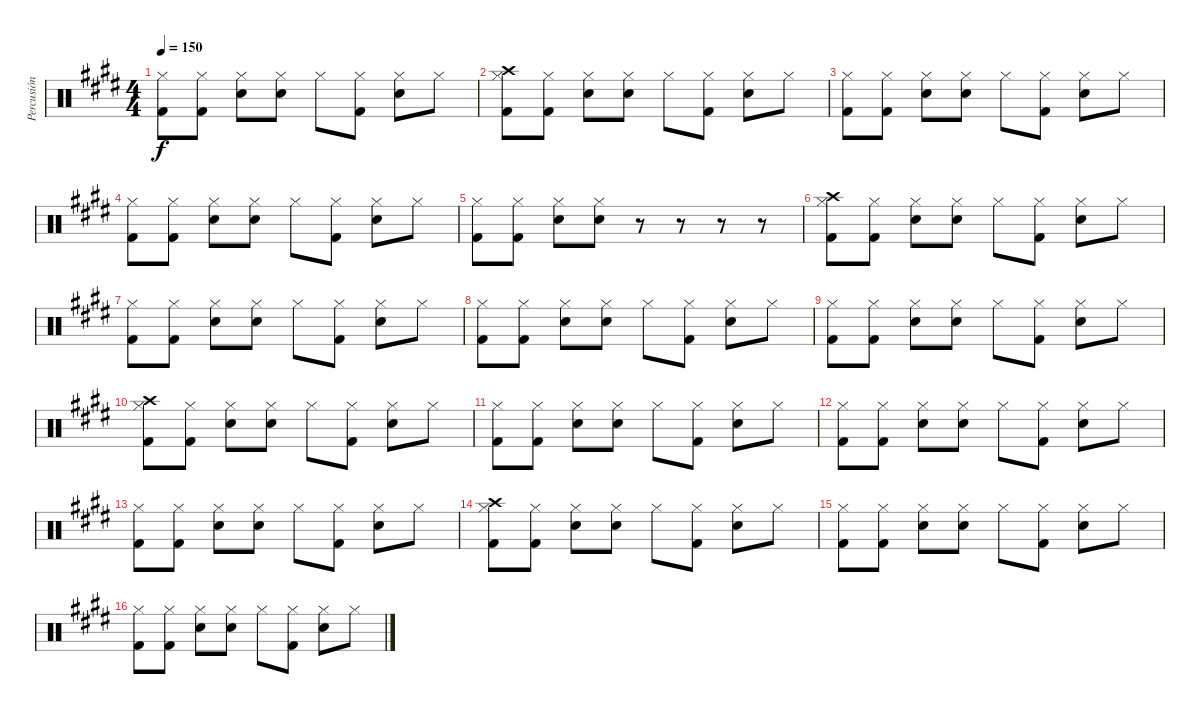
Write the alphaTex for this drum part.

\track ("Percusión" "Percusión") {instrument percussion}
\staff {score}
\articulation defaults
\ts (4 4)
\tempo 150
\clef neutral
\ks e
("Kick (hit) 2" "Hi-Hat (closed)").8{dy f} ("Kick (hit) 2" "Hi-Hat (closed)").8 ("Snare (hit) 2" "Hi-Hat (closed)").8 ("Snare (hit) 2" "Hi-Hat (closed)").8 "Hi-Hat (closed)".8 ("Kick (hit) 2" "Hi-Hat (closed)").8 ("Snare (hit) 2" "Hi-Hat (closed)").8 "Hi-Hat (closed)".8 |
("Kick (hit) 2" "Hi-Hat (closed)" "Crash high (hit)").8 ("Kick (hit) 2" "Hi-Hat (closed)").8 ("Snare (hit) 2" "Hi-Hat (closed)").8 ("Snare (hit) 2" "Hi-Hat (closed)").8 "Hi-Hat (closed)".8 ("Kick (hit) 2" "Hi-Hat (closed)").8 ("Snare (hit) 2" "Hi-Hat (closed)").8 "Hi-Hat (closed)".8 |
("Kick (hit) 2" "Hi-Hat (closed)").8 ("Kick (hit) 2" "Hi-Hat (closed)").8 ("Snare (hit) 2" "Hi-Hat (closed)").8 ("Snare (hit) 2" "Hi-Hat (closed)").8 "Hi-Hat (closed)".8 ("Kick (hit) 2" "Hi-Hat (closed)").8 ("Snare (hit) 2" "Hi-Hat (closed)").8 "Hi-Hat (closed)".8 |
("Kick (hit) 2" "Hi-Hat (closed)").8 ("Kick (hit) 2" "Hi-Hat (closed)").8 ("Snare (hit) 2" "Hi-Hat (closed)").8 ("Snare (hit) 2" "Hi-Hat (closed)").8 "Hi-Hat (closed)".8 ("Kick (hit) 2" "Hi-Hat (closed)").8 ("Snare (hit) 2" "Hi-Hat (closed)").8 "Hi-Hat (closed)".8 |
("Kick (hit) 2" "Hi-Hat (closed)").8 ("Kick (hit) 2" "Hi-Hat (closed)").8 ("Snare (hit) 2" "Hi-Hat (closed)").8 ("Snare (hit) 2" "Hi-Hat (closed)").8 r.8 r.8 r.8 r.8 |
("Kick (hit) 2" "Hi-Hat (closed)" "Crash high (hit)").8 ("Kick (hit) 2" "Hi-Hat (closed)").8 ("Snare (hit) 2" "Hi-Hat (closed)").8 ("Snare (hit) 2" "Hi-Hat (closed)").8 "Hi-Hat (closed)".8 ("Kick (hit) 2" "Hi-Hat (closed)").8 ("Snare (hit) 2" "Hi-Hat (closed)").8 "Hi-Hat (closed)".8 |
("Kick (hit) 2" "Hi-Hat (closed)").8 ("Kick (hit) 2" "Hi-Hat (closed)").8 ("Snare (hit) 2" "Hi-Hat (closed)").8 ("Snare (hit) 2" "Hi-Hat (closed)").8 "Hi-Hat (closed)".8 ("Kick (hit) 2" "Hi-Hat (closed)").8 ("Snare (hit) 2" "Hi-Hat (closed)").8 "Hi-Hat (closed)".8 |
("Kick (hit) 2" "Hi-Hat (closed)").8 ("Kick (hit) 2" "Hi-Hat (closed)").8 ("Snare (hit) 2" "Hi-Hat (closed)").8 ("Snare (hit) 2" "Hi-Hat (closed)").8 "Hi-Hat (closed)".8 ("Kick (hit) 2" "Hi-Hat (closed)").8 ("Snare (hit) 2" "Hi-Hat (closed)").8 "Hi-Hat (closed)".8 |
("Kick (hit) 2" "Hi-Hat (closed)").8 ("Kick (hit) 2" "Hi-Hat (closed)").8 ("Snare (hit) 2" "Hi-Hat (closed)").8 ("Snare (hit) 2" "Hi-Hat (closed)").8 "Hi-Hat (closed)".8 ("Kick (hit) 2" "Hi-Hat (closed)").8 ("Snare (hit) 2" "Hi-Hat (closed)").8 "Hi-Hat (closed)".8 |
("Kick (hit) 2" "Hi-Hat (closed)" "Crash high (hit)").8 ("Kick (hit) 2" "Hi-Hat (closed)").8 ("Snare (hit) 2" "Hi-Hat (closed)").8 ("Snare (hit) 2" "Hi-Hat (closed)").8 "Hi-Hat (closed)".8 ("Kick (hit) 2" "Hi-Hat (closed)").8 ("Snare (hit) 2" "Hi-Hat (closed)").8 "Hi-Hat (closed)".8 |
("Kick (hit) 2" "Hi-Hat (closed)").8 ("Kick (hit) 2" "Hi-Hat (closed)").8 ("Snare (hit) 2" "Hi-Hat (closed)").8 ("Snare (hit) 2" "Hi-Hat (closed)").8 "Hi-Hat (closed)".8 ("Kick (hit) 2" "Hi-Hat (closed)").8 ("Snare (hit) 2" "Hi-Hat (closed)").8 "Hi-Hat (closed)".8 |
("Kick (hit) 2" "Hi-Hat (closed)").8 ("Kick (hit) 2" "Hi-Hat (closed)").8 ("Snare (hit) 2" "Hi-Hat (closed)").8 ("Snare (hit) 2" "Hi-Hat (closed)").8 "Hi-Hat (closed)".8 ("Kick (hit) 2" "Hi-Hat (closed)").8 ("Snare (hit) 2" "Hi-Hat (closed)").8 "Hi-Hat (closed)".8 |
("Kick (hit) 2" "Hi-Hat (closed)").8 ("Kick (hit) 2" "Hi-Hat (closed)").8 ("Snare (hit) 2" "Hi-Hat (closed)").8 ("Snare (hit) 2" "Hi-Hat (closed)").8 "Hi-Hat (closed)".8 ("Kick (hit) 2" "Hi-Hat (closed)").8 ("Snare (hit) 2" "Hi-Hat (closed)").8 "Hi-Hat (closed)".8 |
("Kick (hit) 2" "Hi-Hat (closed)" "Crash high (hit)").8 ("Kick (hit) 2" "Hi-Hat (closed)").8 ("Snare (hit) 2" "Hi-Hat (closed)").8 ("Snare (hit) 2" "Hi-Hat (closed)").8 "Hi-Hat (closed)".8 ("Kick (hit) 2" "Hi-Hat (closed)").8 ("Snare (hit) 2" "Hi-Hat (closed)").8 "Hi-Hat (closed)".8 |
("Kick (hit) 2" "Hi-Hat (closed)").8 ("Kick (hit) 2" "Hi-Hat (closed)").8 ("Snare (hit) 2" "Hi-Hat (closed)").8 ("Snare (hit) 2" "Hi-Hat (closed)").8 "Hi-Hat (closed)".8 ("Kick (hit) 2" "Hi-Hat (closed)").8 ("Snare (hit) 2" "Hi-Hat (closed)").8 "Hi-Hat (closed)".8 |
("Kick (hit) 2" "Hi-Hat (closed)").8 ("Kick (hit) 2" "Hi-Hat (closed)").8 ("Snare (hit) 2" "Hi-Hat (closed)").8 ("Snare (hit) 2" "Hi-Hat (closed)").8 "Hi-Hat (closed)".8 ("Kick (hit) 2" "Hi-Hat (closed)").8 ("Snare (hit) 2" "Hi-Hat (closed)").8 "Hi-Hat (closed)".8
